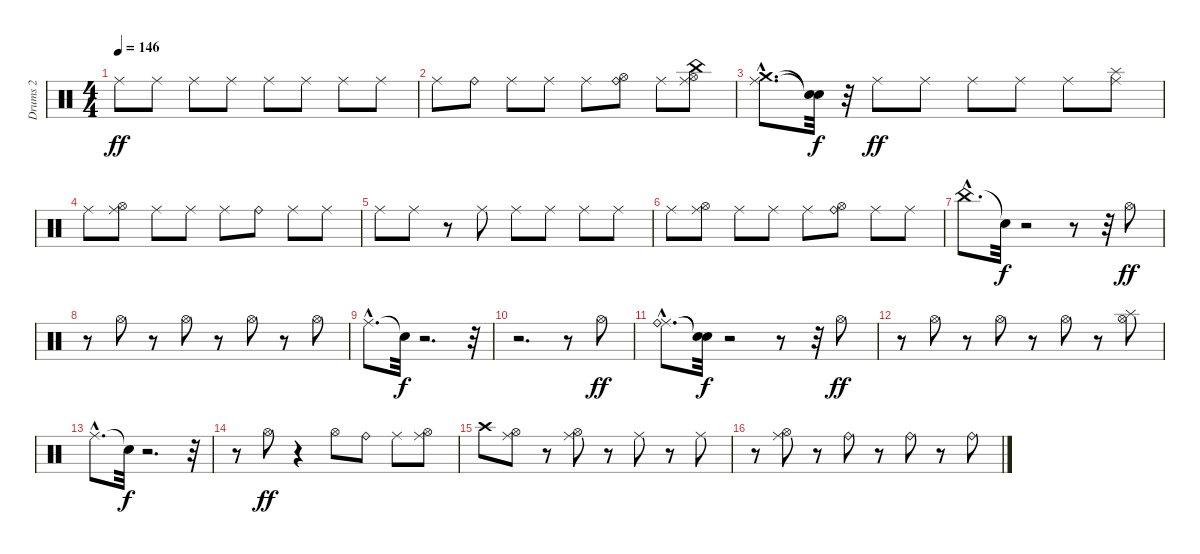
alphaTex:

\track ("Drums 2" "Drums 2") {instrument percussion}
\staff {score}
\articulation defaults
\ts (4 4)
\tempo 146
\clef neutral
\ks c "Ride (middle)".8{dy ff} "Ride (middle)".8 "Ride (middle)".8 "Ride (middle)".8 "Ride (middle)".8 "Ride (middle)".8 "Ride (middle)".8 "Ride (middle)".8
|
"Ride (middle)".8 "Ride (bell)".8 "Ride (middle)".8 "Ride (middle)".8 "Ride (middle)".8 ("Hi-Hat (open)" "Ride (bell)").8 "Ride (middle)".8 ("Hi-Hat (open)" "Ride (middle)" "China (hit)").8 |
("Ride (middle)"{hac} "Crash medium (hit)"{hac}).8{d} ("Snare (hit)"{t} "Snare (hit)"{t}).32{dy f} r.32 "Ride (middle)".8{dy ff} "Ride (middle)".8 "Ride (middle)".8 "Ride (middle)".8 "Ride (middle)".8 ("Ride (middle)" "Splash (hit)").8 |
"Ride (middle)".8 ("Hi-Hat (open)" "Ride (middle)").8 "Ride (middle)".8 "Ride (middle)".8 "Ride (middle)".8 "Ride (bell)".8 "Ride (middle)".8 "Ride (middle)".8 |
"Ride (middle)".8 "Ride (middle)".8 r.8 "Ride (middle)".8 "Ride (middle)".8 "Ride (middle)".8 "Ride (middle)".8 "Ride (middle)".8 |
"Ride (middle)".8 ("Hi-Hat (open)" "Ride (middle)").8 "Ride (middle)".8 "Ride (middle)".8 "Ride (middle)".8 ("Hi-Hat (open)" "Ride (bell)").8 "Ride (middle)".8 "Ride (middle)".8 |
"China (hit)"{hac}.8{d} "Snare (hit)"{t}.32{dy f} r.2 r.8 r.32 "Hi-Hat (open)".8{dy ff} |
r.8 "Hi-Hat (open)".8 r.8 "Hi-Hat (open)".8 r.8 "Hi-Hat (open)".8 r.8 "Hi-Hat (open)".8 |
"Ride (middle)"{hac}.8{d} "Snare (hit)"{t}.32{dy f} r.2{d} r.32 |
r.2{d} r.8 "Hi-Hat (open)".8{dy ff} |
("Ride (middle)"{hac} "Ride (bell)"{hac}).8{d} ("Snare (hit)"{t} "Snare (hit)"{t}).32{dy f} r.2 r.8 r.32 "Hi-Hat (open)".8{dy ff} |
r.8 "Hi-Hat (open)".8 r.8 "Hi-Hat (open)".8 r.8 "Hi-Hat (open)".8 r.8 ("Hi-Hat (open)" "Splash (hit)").8 |
"Ride (middle)"{hac}.8{d} "Snare (hit)"{t}.32{dy f} r.2{d} r.32 |
r.8 "Hi-Hat (open)".8{dy ff} r.4 "Hi-Hat (open)".8 "Ride (bell)".8 "Ride (middle)".8 ("Hi-Hat (open)" "Ride (middle)").8 |
"Crash high (hit)".8 ("Hi-Hat (open)" "Ride (middle)").8 r.8 ("Hi-Hat (open)" "Ride (middle)").8 r.8 "Ride (middle)".8 r.8 "Ride (middle)".8 |
r.8 ("Hi-Hat (open)" "Ride (middle)").8 r.8 "Ride (bell)".8 r.8 "Ride (bell)".8 r.8 "Ride (bell)".8
